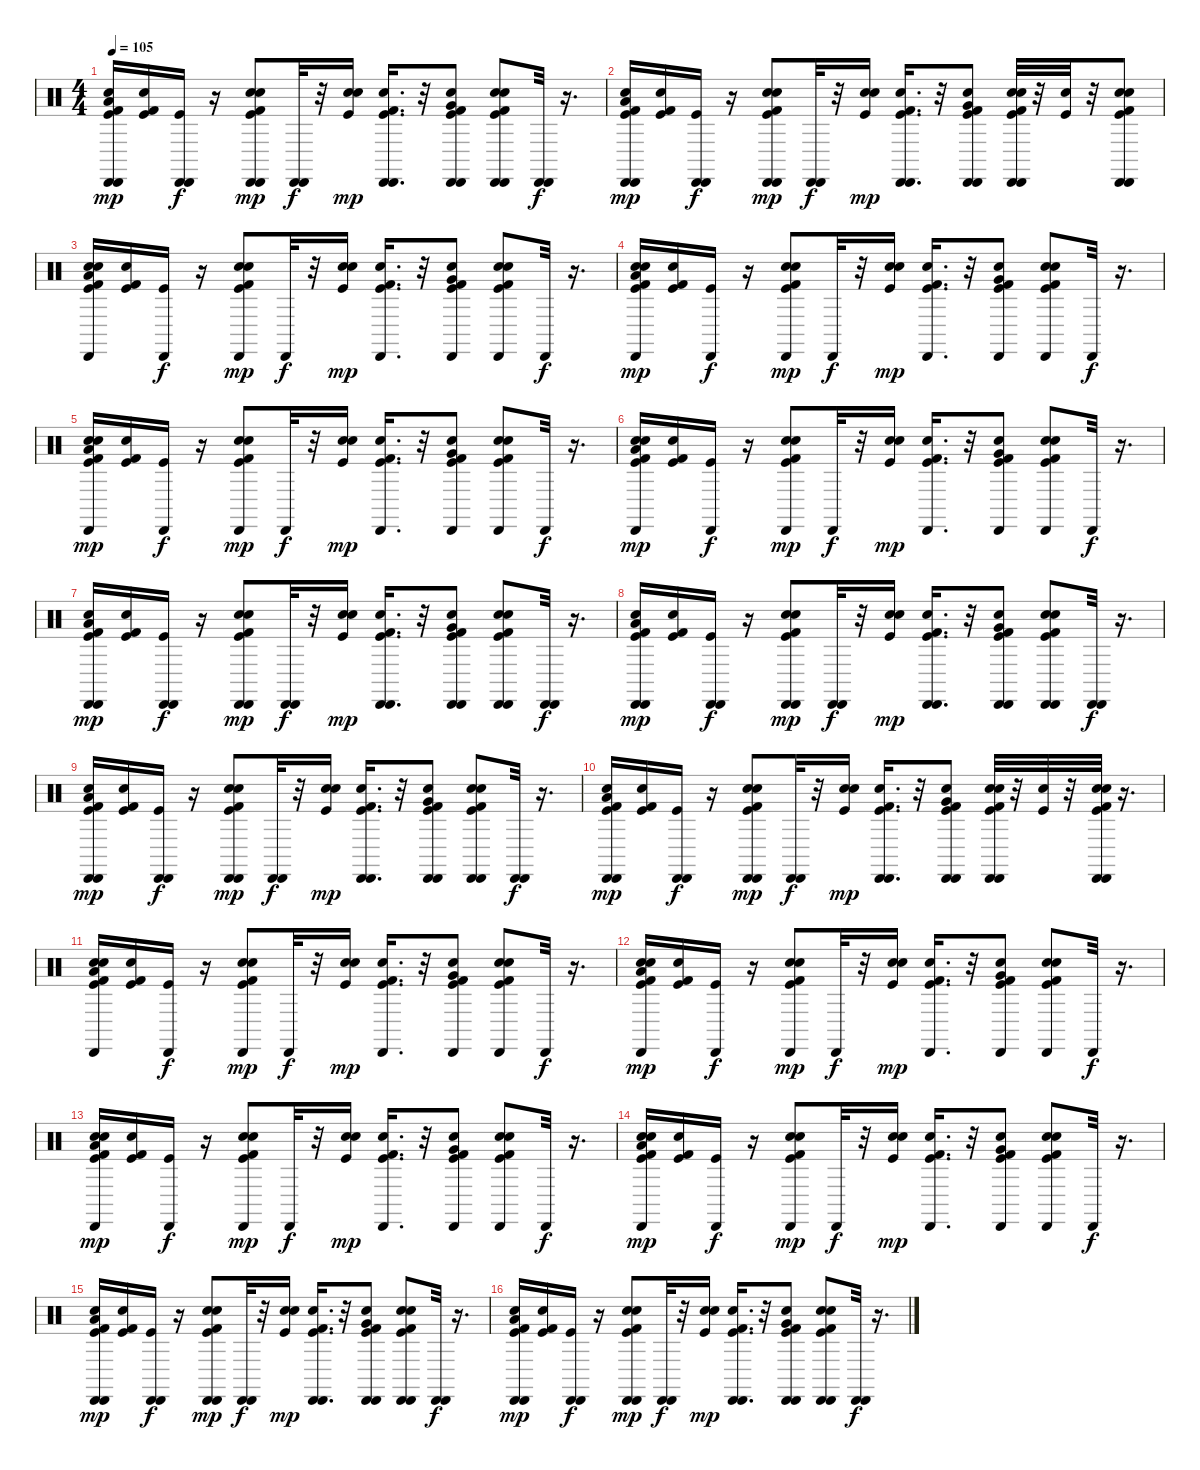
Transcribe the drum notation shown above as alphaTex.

\track "" {instrument percussion}
\staff {score}
\articulation defaults
\ts (4 4)
\tempo 105
\clef neutral
\ks c
("Cabasa (hit)" "Kick (hit) 2" "Kick (hit)" "Cabasa (hit)" "Electric Snare (hit)" "Low Floor Tom (hit)").16{dy mp} ("Snare (hit) 2" "Kick (hit)" "Kick (hit) 2").16 ("Cabasa (hit)" "Cabasa (hit)" "Kick (hit)").16{dy f} r.16 ("Electric Snare (hit)" "Cabasa (hit)" "Cabasa (hit)" "Kick (hit) 2" "Kick (hit)" "Snare (hit) 2").8{dy mp} ("Cabasa (hit)" "Cabasa (hit)").32{dy f} r.32 ("Kick (hit)" "Electric Snare (hit)" "Snare (hit) 2").16{dy mp} ("Kick (hit)" "Snare (hit) 2" "Kick (hit) 2" "Cabasa (hit)" "Cabasa (hit)").16{d} r.32 ("Kick (hit) 2" "Snare (hit) 2" "Kick (hit)" "Cabasa (hit)" "Very Low Tom (hit)" "Cabasa (hit)").8 ("Kick (hit)" "Snare (hit) 2" "Cabasa (hit)" "Kick (hit) 2" "Electric Snare (hit)" "Cabasa (hit)").8 ("Cabasa (hit)" "Cabasa (hit)").32{dy f} r.16{d} |
("Kick (hit) 2" "Cabasa (hit)" "Kick (hit)" "Cabasa (hit)" "Low Floor Tom (hit)" "Electric Snare (hit)").16{dy mp} ("Kick (hit) 2" "Kick (hit)" "Snare (hit) 2").16 ("Kick (hit)" "Cabasa (hit)" "Cabasa (hit)").16{dy f} r.16 ("Snare (hit) 2" "Cabasa (hit)" "Kick (hit)" "Electric Snare (hit)" "Cabasa (hit)" "Kick (hit) 2").8{dy mp} ("Cabasa (hit)" "Cabasa (hit)").32{dy f} r.32 ("Electric Snare (hit)" "Kick (hit)" "Snare (hit) 2").16{dy mp} ("Cabasa (hit)" "Cabasa (hit)" "Snare (hit) 2" "Kick (hit)" "Kick (hit) 2").16{d} r.32 ("Snare (hit) 2" "Kick (hit)" "Cabasa (hit)" "Kick (hit) 2" "Very Low Tom (hit)" "Cabasa (hit)").8 ("Electric Snare (hit)" "Kick (hit)" "Kick (hit) 2" "Snare (hit) 2" "Cabasa (hit)" "Cabasa (hit)").32 r.32 ("Kick (hit)" "Snare (hit) 2").32 r.32 ("Kick (hit)" "Cabasa (hit)" "Cabasa (hit)" "Hand Clap (hit)" "Kick (hit) 2" "Electric Snare (hit)").8 |
("Kick (hit) 2" "Kick (hit)" "Cabasa (hit)" "Electric Snare (hit)" "Low Floor Tom (hit)" "Snare (hit) 2").16 ("Kick (hit) 2" "Snare (hit) 2" "Kick (hit)").16 ("Kick (hit)" "Cabasa (hit)").16{dy f} r.16 ("Electric Snare (hit)" "Cabasa (hit)" "Kick (hit) 2" "Kick (hit)" "Snare (hit) 2").8{dy mp} "Cabasa (hit)".32{dy f} r.32 ("Kick (hit)" "Snare (hit) 2" "Electric Snare (hit)").16{dy mp} ("Snare (hit) 2" "Kick (hit)" "Cabasa (hit)" "Kick (hit) 2").16{d} r.32 ("Kick (hit)" "Snare (hit) 2" "Kick (hit) 2" "Cabasa (hit)" "Very Low Tom (hit)").8 ("Snare (hit) 2" "Kick (hit)" "Electric Snare (hit)" "Cabasa (hit)" "Kick (hit) 2").8 "Cabasa (hit)".32{dy f} r.16{d} |
("Electric Snare (hit)" "Kick (hit) 2" "Kick (hit)" "Cabasa (hit)" "Low Floor Tom (hit)" "Snare (hit) 2").16{dy mp} ("Kick (hit) 2" "Kick (hit)" "Snare (hit) 2").16 ("Kick (hit)" "Cabasa (hit)").16{dy f} r.16 ("Electric Snare (hit)" "Snare (hit) 2" "Kick (hit)" "Cabasa (hit)" "Kick (hit) 2").8{dy mp} "Cabasa (hit)".32{dy f} r.32 ("Electric Snare (hit)" "Kick (hit)" "Snare (hit) 2").16{dy mp} ("Snare (hit) 2" "Kick (hit)" "Kick (hit) 2" "Cabasa (hit)").16{d} r.32 ("Very Low Tom (hit)" "Snare (hit) 2" "Kick (hit)" "Cabasa (hit)" "Kick (hit) 2").8 ("Electric Snare (hit)" "Kick (hit)" "Cabasa (hit)" "Snare (hit) 2" "Kick (hit) 2").8 "Cabasa (hit)".32{dy f} r.16{d} |
("Kick (hit) 2" "Kick (hit)" "Cabasa (hit)" "Electric Snare (hit)" "Low Floor Tom (hit)" "Snare (hit) 2").16{dy mp} ("Kick (hit) 2" "Snare (hit) 2" "Kick (hit)").16 ("Kick (hit)" "Cabasa (hit)").16{dy f} r.16 ("Electric Snare (hit)" "Cabasa (hit)" "Kick (hit) 2" "Kick (hit)" "Snare (hit) 2").8{dy mp} "Cabasa (hit)".32{dy f} r.32 ("Kick (hit)" "Snare (hit) 2" "Electric Snare (hit)").16{dy mp} ("Snare (hit) 2" "Kick (hit)" "Cabasa (hit)" "Kick (hit) 2").16{d} r.32 ("Kick (hit)" "Snare (hit) 2" "Kick (hit) 2" "Cabasa (hit)" "Very Low Tom (hit)").8 ("Snare (hit) 2" "Kick (hit)" "Electric Snare (hit)" "Cabasa (hit)" "Kick (hit) 2").8 "Cabasa (hit)".32{dy f} r.16{d} |
("Electric Snare (hit)" "Kick (hit) 2" "Kick (hit)" "Cabasa (hit)" "Low Floor Tom (hit)" "Snare (hit) 2").16{dy mp} ("Kick (hit) 2" "Kick (hit)" "Snare (hit) 2").16 ("Kick (hit)" "Cabasa (hit)").16{dy f} r.16 ("Electric Snare (hit)" "Snare (hit) 2" "Kick (hit)" "Cabasa (hit)" "Kick (hit) 2").8{dy mp} "Cabasa (hit)".32{dy f} r.32 ("Electric Snare (hit)" "Kick (hit)" "Snare (hit) 2").16{dy mp} ("Snare (hit) 2" "Kick (hit)" "Kick (hit) 2" "Cabasa (hit)").16{d} r.32 ("Very Low Tom (hit)" "Snare (hit) 2" "Kick (hit)" "Cabasa (hit)" "Kick (hit) 2").8 ("Electric Snare (hit)" "Kick (hit)" "Cabasa (hit)" "Snare (hit) 2" "Kick (hit) 2").8 "Cabasa (hit)".32{dy f} r.16{d} |
("Kick (hit) 2" "Kick (hit)" "Cabasa (hit)" "Electric Snare (hit)" "Low Floor Tom (hit)" "Cabasa (hit)").16{dy mp} ("Kick (hit) 2" "Kick (hit)" "Snare (hit) 2").16 ("Cabasa (hit)" "Kick (hit)" "Cabasa (hit)").16{dy f} r.16 ("Electric Snare (hit)" "Cabasa (hit)" "Snare (hit) 2" "Cabasa (hit)" "Kick (hit)" "Kick (hit) 2").8{dy mp} ("Cabasa (hit)" "Cabasa (hit)").32{dy f} r.32 ("Kick (hit)" "Snare (hit) 2" "Electric Snare (hit)").16{dy mp} ("Snare (hit) 2" "Kick (hit)" "Cabasa (hit)" "Cabasa (hit)" "Kick (hit) 2").16{d} r.32 ("Cabasa (hit)" "Very Low Tom (hit)" "Kick (hit)" "Snare (hit) 2" "Cabasa (hit)" "Kick (hit) 2").8 ("Kick (hit)" "Cabasa (hit)" "Electric Snare (hit)" "Snare (hit) 2" "Cabasa (hit)" "Kick (hit) 2").8 ("Cabasa (hit)" "Cabasa (hit)").32{dy f} r.16{d} |
("Cabasa (hit)" "Electric Snare (hit)" "Kick (hit) 2" "Kick (hit)" "Cabasa (hit)" "Low Floor Tom (hit)").16{dy mp} ("Kick (hit) 2" "Snare (hit) 2" "Kick (hit)").16 ("Cabasa (hit)" "Kick (hit)" "Cabasa (hit)").16{dy f} r.16 ("Electric Snare (hit)" "Snare (hit) 2" "Kick (hit)" "Cabasa (hit)" "Kick (hit) 2" "Cabasa (hit)").8{dy mp} ("Cabasa (hit)" "Cabasa (hit)").32{dy f} r.32 ("Snare (hit) 2" "Electric Snare (hit)" "Kick (hit)").16{dy mp} ("Kick (hit)" "Snare (hit) 2" "Cabasa (hit)" "Kick (hit) 2" "Cabasa (hit)").16{d} r.32 ("Very Low Tom (hit)" "Snare (hit) 2" "Cabasa (hit)" "Kick (hit) 2" "Kick (hit)" "Cabasa (hit)").8 ("Electric Snare (hit)" "Kick (hit)" "Kick (hit) 2" "Snare (hit) 2" "Cabasa (hit)" "Cabasa (hit)").8 ("Cabasa (hit)" "Cabasa (hit)").32{dy f} r.16{d} |
("Cabasa (hit)" "Kick (hit) 2" "Kick (hit)" "Cabasa (hit)" "Electric Snare (hit)" "Low Floor Tom (hit)").16{dy mp} ("Snare (hit) 2" "Kick (hit)" "Kick (hit) 2").16 ("Cabasa (hit)" "Cabasa (hit)" "Kick (hit)").16{dy f} r.16 ("Electric Snare (hit)" "Cabasa (hit)" "Cabasa (hit)" "Kick (hit) 2" "Kick (hit)" "Snare (hit) 2").8{dy mp} ("Cabasa (hit)" "Cabasa (hit)").32{dy f} r.32 ("Kick (hit)" "Electric Snare (hit)" "Snare (hit) 2").16{dy mp} ("Kick (hit)" "Snare (hit) 2" "Kick (hit) 2" "Cabasa (hit)" "Cabasa (hit)").16{d} r.32 ("Kick (hit) 2" "Snare (hit) 2" "Kick (hit)" "Cabasa (hit)" "Very Low Tom (hit)" "Cabasa (hit)").8 ("Kick (hit)" "Snare (hit) 2" "Cabasa (hit)" "Kick (hit) 2" "Electric Snare (hit)" "Cabasa (hit)").8 ("Cabasa (hit)" "Cabasa (hit)").32{dy f} r.16{d} |
("Kick (hit) 2" "Cabasa (hit)" "Kick (hit)" "Cabasa (hit)" "Low Floor Tom (hit)" "Electric Snare (hit)").16{dy mp} ("Kick (hit) 2" "Kick (hit)" "Snare (hit) 2").16 ("Kick (hit)" "Cabasa (hit)" "Cabasa (hit)").16{dy f} r.16 ("Snare (hit) 2" "Cabasa (hit)" "Kick (hit)" "Electric Snare (hit)" "Cabasa (hit)" "Kick (hit) 2").8{dy mp} ("Cabasa (hit)" "Cabasa (hit)").32{dy f} r.32 ("Electric Snare (hit)" "Kick (hit)" "Snare (hit) 2").16{dy mp} ("Cabasa (hit)" "Cabasa (hit)" "Snare (hit) 2" "Kick (hit)" "Kick (hit) 2").16{d} r.32 ("Snare (hit) 2" "Kick (hit)" "Cabasa (hit)" "Kick (hit) 2" "Very Low Tom (hit)" "Cabasa (hit)").8 ("Electric Snare (hit)" "Kick (hit)" "Kick (hit) 2" "Snare (hit) 2" "Cabasa (hit)" "Cabasa (hit)").32 r.32 ("Kick (hit)" "Snare (hit) 2").32 r.32 ("Kick (hit)" "Cabasa (hit)" "Cabasa (hit)" "Hand Clap (hit)" "Kick (hit) 2" "Electric Snare (hit)").32 r.16{d} |
("Kick (hit) 2" "Kick (hit)" "Cabasa (hit)" "Electric Snare (hit)" "Low Floor Tom (hit)" "Snare (hit) 2").16 ("Kick (hit) 2" "Snare (hit) 2" "Kick (hit)").16 ("Kick (hit)" "Cabasa (hit)").16{dy f} r.16 ("Electric Snare (hit)" "Cabasa (hit)" "Kick (hit) 2" "Kick (hit)" "Snare (hit) 2").8{dy mp} "Cabasa (hit)".32{dy f} r.32 ("Kick (hit)" "Snare (hit) 2" "Electric Snare (hit)").16{dy mp} ("Snare (hit) 2" "Kick (hit)" "Cabasa (hit)" "Kick (hit) 2").16{d} r.32 ("Kick (hit)" "Snare (hit) 2" "Kick (hit) 2" "Cabasa (hit)" "Very Low Tom (hit)").8 ("Snare (hit) 2" "Kick (hit)" "Electric Snare (hit)" "Cabasa (hit)" "Kick (hit) 2").8 "Cabasa (hit)".32{dy f} r.16{d} |
("Electric Snare (hit)" "Kick (hit) 2" "Kick (hit)" "Cabasa (hit)" "Low Floor Tom (hit)" "Snare (hit) 2").16{dy mp} ("Kick (hit) 2" "Kick (hit)" "Snare (hit) 2").16 ("Kick (hit)" "Cabasa (hit)").16{dy f} r.16 ("Electric Snare (hit)" "Snare (hit) 2" "Kick (hit)" "Cabasa (hit)" "Kick (hit) 2").8{dy mp} "Cabasa (hit)".32{dy f} r.32 ("Electric Snare (hit)" "Kick (hit)" "Snare (hit) 2").16{dy mp} ("Snare (hit) 2" "Kick (hit)" "Kick (hit) 2" "Cabasa (hit)").16{d} r.32 ("Very Low Tom (hit)" "Snare (hit) 2" "Kick (hit)" "Cabasa (hit)" "Kick (hit) 2").8 ("Electric Snare (hit)" "Kick (hit)" "Cabasa (hit)" "Snare (hit) 2" "Kick (hit) 2").8 "Cabasa (hit)".32{dy f} r.16{d} |
("Kick (hit) 2" "Kick (hit)" "Cabasa (hit)" "Electric Snare (hit)" "Low Floor Tom (hit)" "Snare (hit) 2").16{dy mp} ("Kick (hit) 2" "Snare (hit) 2" "Kick (hit)").16 ("Kick (hit)" "Cabasa (hit)").16{dy f} r.16 ("Electric Snare (hit)" "Cabasa (hit)" "Kick (hit) 2" "Kick (hit)" "Snare (hit) 2").8{dy mp} "Cabasa (hit)".32{dy f} r.32 ("Kick (hit)" "Snare (hit) 2" "Electric Snare (hit)").16{dy mp} ("Snare (hit) 2" "Kick (hit)" "Cabasa (hit)" "Kick (hit) 2").16{d} r.32 ("Kick (hit)" "Snare (hit) 2" "Kick (hit) 2" "Cabasa (hit)" "Very Low Tom (hit)").8 ("Snare (hit) 2" "Kick (hit)" "Electric Snare (hit)" "Cabasa (hit)" "Kick (hit) 2").8 "Cabasa (hit)".32{dy f} r.16{d} |
("Electric Snare (hit)" "Kick (hit) 2" "Kick (hit)" "Cabasa (hit)" "Low Floor Tom (hit)" "Snare (hit) 2").16{dy mp} ("Kick (hit) 2" "Kick (hit)" "Snare (hit) 2").16 ("Kick (hit)" "Cabasa (hit)").16{dy f} r.16 ("Electric Snare (hit)" "Snare (hit) 2" "Kick (hit)" "Cabasa (hit)" "Kick (hit) 2").8{dy mp} "Cabasa (hit)".32{dy f} r.32 ("Electric Snare (hit)" "Kick (hit)" "Snare (hit) 2").16{dy mp} ("Snare (hit) 2" "Kick (hit)" "Kick (hit) 2" "Cabasa (hit)").16{d volume 14} r.32 ("Very Low Tom (hit)" "Snare (hit) 2" "Kick (hit)" "Cabasa (hit)" "Kick (hit) 2").8 ("Electric Snare (hit)" "Kick (hit)" "Cabasa (hit)" "Snare (hit) 2" "Kick (hit) 2").8{volume 13} "Cabasa (hit)".32{dy f volume 13} r.16{d} |
("Kick (hit) 2" "Kick (hit)" "Cabasa (hit)" "Electric Snare (hit)" "Low Floor Tom (hit)" "Cabasa (hit)").16{dy mp} ("Kick (hit) 2" "Kick (hit)" "Snare (hit) 2").16 ("Cabasa (hit)" "Kick (hit)" "Cabasa (hit)").16{dy f} r.16 ("Electric Snare (hit)" "Cabasa (hit)" "Snare (hit) 2" "Cabasa (hit)" "Kick (hit)" "Kick (hit) 2").8{dy mp volume 13} ("Cabasa (hit)" "Cabasa (hit)").32{dy f volume 13} r.32 ("Kick (hit)" "Snare (hit) 2" "Electric Snare (hit)").16{dy mp} ("Snare (hit) 2" "Kick (hit)" "Cabasa (hit)" "Cabasa (hit)" "Kick (hit) 2").16{d volume 12} r.32 ("Cabasa (hit)" "Very Low Tom (hit)" "Kick (hit)" "Snare (hit) 2" "Cabasa (hit)" "Kick (hit) 2").8{volume 12} ("Kick (hit)" "Cabasa (hit)" "Electric Snare (hit)" "Snare (hit) 2" "Cabasa (hit)" "Kick (hit) 2").8{volume 12} ("Cabasa (hit)" "Cabasa (hit)").32{dy f volume 11} r.16{d} |
("Cabasa (hit)" "Electric Snare (hit)" "Kick (hit) 2" "Kick (hit)" "Cabasa (hit)" "Low Floor Tom (hit)").16{dy mp volume 10} ("Kick (hit) 2" "Snare (hit) 2" "Kick (hit)").16{volume 10} ("Cabasa (hit)" "Kick (hit)" "Cabasa (hit)").16{dy f volume 10} r.16 ("Electric Snare (hit)" "Snare (hit) 2" "Kick (hit)" "Cabasa (hit)" "Kick (hit) 2" "Cabasa (hit)").8{dy mp volume 10} ("Cabasa (hit)" "Cabasa (hit)").32{dy f volume 8} r.32 ("Snare (hit) 2" "Electric Snare (hit)" "Kick (hit)").16{dy mp volume 8} ("Kick (hit)" "Snare (hit) 2" "Cabasa (hit)" "Kick (hit) 2" "Cabasa (hit)").16{d volume 8} r.32 ("Very Low Tom (hit)" "Snare (hit) 2" "Cabasa (hit)" "Kick (hit) 2" "Kick (hit)" "Cabasa (hit)").8 ("Electric Snare (hit)" "Kick (hit)" "Kick (hit) 2" "Snare (hit) 2" "Cabasa (hit)" "Cabasa (hit)").8 ("Cabasa (hit)" "Cabasa (hit)").32{dy f volume 8} r.16{d}
